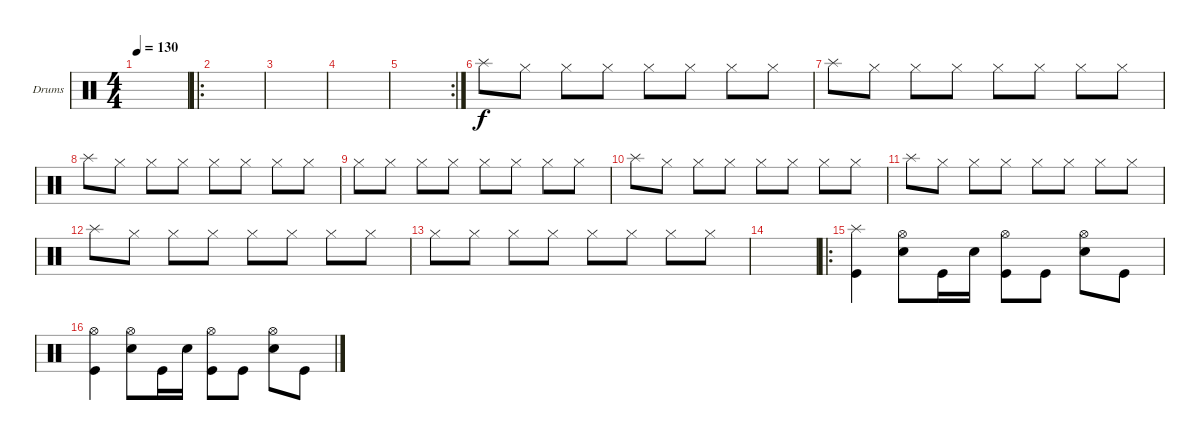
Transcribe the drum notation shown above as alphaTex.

\defaultSystemsLayout 4
\bracketExtendMode groupsimilarinstruments
\firstSystemTrackNameOrientation horizontal
\otherSystemsTrackNameOrientation horizontal
\track ("Drumkit" "Drums") {instrument percussion}
\staff {score}
\articulation defaults
\ts (4 4)
\tempo 130
\clef neutral
\ks c
|
\ro
|
|
|
\rc 2
|
"Splash (hit)".8 "Hi-Hat (closed)".8 "Hi-Hat (closed)".8 "Hi-Hat (closed)".8 "Hi-Hat (closed)".8 "Hi-Hat (closed)".8 "Hi-Hat (closed)".8 "Hi-Hat (closed)".8 |
"Splash (hit)".8 "Hi-Hat (closed)".8 "Hi-Hat (closed)".8 "Hi-Hat (closed)".8 "Hi-Hat (closed)".8 "Hi-Hat (closed)".8 "Hi-Hat (closed)".8 "Hi-Hat (closed)".8 |
"Splash (hit)".8 "Hi-Hat (closed)".8 "Hi-Hat (closed)".8 "Hi-Hat (closed)".8 "Hi-Hat (closed)".8 "Hi-Hat (closed)".8 "Hi-Hat (closed)".8 "Hi-Hat (closed)".8 |
"Hi-Hat (closed)".8 "Hi-Hat (closed)".8 "Hi-Hat (closed)".8 "Hi-Hat (closed)".8 "Hi-Hat (closed)".8 "Hi-Hat (closed)".8 "Hi-Hat (closed)".8 "Hi-Hat (closed)".8 |
"Splash (hit)".8 "Hi-Hat (closed)".8 "Hi-Hat (closed)".8 "Hi-Hat (closed)".8 "Hi-Hat (closed)".8 "Hi-Hat (closed)".8 "Hi-Hat (closed)".8 "Hi-Hat (closed)".8 |
"Splash (hit)".8 "Hi-Hat (closed)".8 "Hi-Hat (closed)".8 "Hi-Hat (closed)".8 "Hi-Hat (closed)".8 "Hi-Hat (closed)".8 "Hi-Hat (closed)".8 "Hi-Hat (closed)".8 |
"Splash (hit)".8 "Hi-Hat (closed)".8 "Hi-Hat (closed)".8 "Hi-Hat (closed)".8 "Hi-Hat (closed)".8 "Hi-Hat (closed)".8 "Hi-Hat (closed)".8 "Hi-Hat (closed)".8 |
"Hi-Hat (closed)".8 "Hi-Hat (closed)".8 "Hi-Hat (closed)".8 "Hi-Hat (closed)".8 "Hi-Hat (closed)".8 "Hi-Hat (closed)".8 "Hi-Hat (closed)".8 "Hi-Hat (closed)".8 |
|
\ro
("Kick (hit)" "Splash (hit)").4 ("Hi-Hat (open)" "Snare (hit) 2").8 "Kick (hit)".16 "Snare (hit) 2".16 ("Kick (hit)" "Hi-Hat (open)").8 "Kick (hit)".8 ("Snare (hit) 2" "Hi-Hat (open)").8 "Kick (hit)".8 |
("Kick (hit)" "Hi-Hat (open)").4 ("Hi-Hat (open)" "Snare (hit) 2").8 "Kick (hit)".16 "Snare (hit) 2".16 ("Kick (hit)" "Hi-Hat (open)").8 "Kick (hit)".8 ("Snare (hit) 2" "Hi-Hat (open)").8 "Kick (hit)".8
